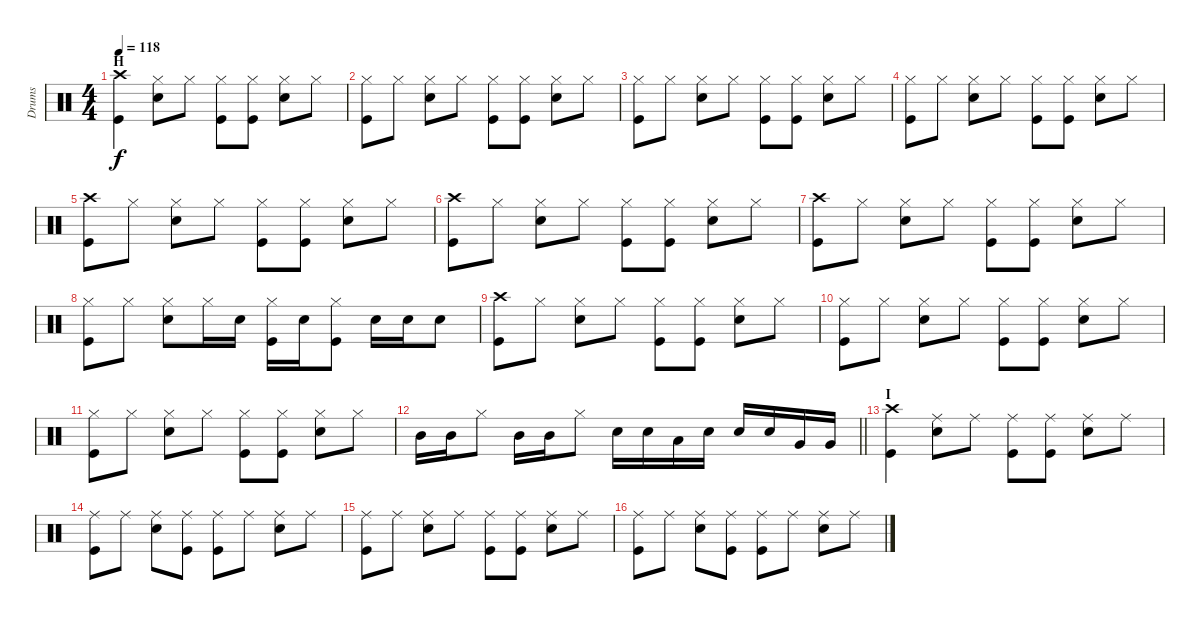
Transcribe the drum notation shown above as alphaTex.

\track ("Drums" "Drums") {instrument percussion}
\staff {score}
\articulation defaults
\ts (4 4)
\section ("" "H")
\tempo 118
\clef neutral
\ks c
("Crash high (hit)" "Kick (hit)").4{dy f} ("Hi-Hat (closed)" "Electric Snare (hit)").8 "Hi-Hat (closed)".8 ("Hi-Hat (closed)" "Kick (hit)").8 ("Hi-Hat (closed)" "Kick (hit)").8 ("Hi-Hat (closed)" "Electric Snare (hit)").8 "Hi-Hat (closed)".8 |
("Hi-Hat (closed)" "Kick (hit)").8 "Hi-Hat (closed)".8 ("Hi-Hat (closed)" "Electric Snare (hit)").8 "Hi-Hat (closed)".8 ("Hi-Hat (closed)" "Kick (hit)").8 ("Hi-Hat (closed)" "Kick (hit)").8 ("Hi-Hat (closed)" "Electric Snare (hit)").8 "Hi-Hat (closed)".8 |
("Hi-Hat (closed)" "Kick (hit)").8 "Hi-Hat (closed)".8 ("Hi-Hat (closed)" "Electric Snare (hit)").8 "Hi-Hat (closed)".8 ("Hi-Hat (closed)" "Kick (hit)").8 ("Hi-Hat (closed)" "Kick (hit)").8 ("Hi-Hat (closed)" "Electric Snare (hit)").8 "Hi-Hat (closed)".8 |
("Hi-Hat (closed)" "Kick (hit)").8 "Hi-Hat (closed)".8 ("Hi-Hat (closed)" "Electric Snare (hit)").8 "Hi-Hat (closed)".8 ("Hi-Hat (closed)" "Kick (hit)").8 ("Hi-Hat (closed)" "Kick (hit)").8 ("Hi-Hat (closed)" "Electric Snare (hit)").8 "Hi-Hat (closed)".8 |
("Crash high (hit)" "Kick (hit)").8 "Hi-Hat (closed)".8 ("Hi-Hat (closed)" "Electric Snare (hit)").8 "Hi-Hat (closed)".8 ("Hi-Hat (closed)" "Kick (hit)").8 ("Hi-Hat (closed)" "Kick (hit)").8 ("Hi-Hat (closed)" "Electric Snare (hit)").8 "Hi-Hat (closed)".8 |
("Crash high (hit)" "Kick (hit)").8 "Hi-Hat (closed)".8 ("Hi-Hat (closed)" "Electric Snare (hit)").8 "Hi-Hat (closed)".8 ("Hi-Hat (closed)" "Kick (hit)").8 ("Hi-Hat (closed)" "Kick (hit)").8 ("Hi-Hat (closed)" "Electric Snare (hit)").8 "Hi-Hat (closed)".8 |
("Crash high (hit)" "Kick (hit)").8 "Hi-Hat (closed)".8 ("Hi-Hat (closed)" "Electric Snare (hit)").8 "Hi-Hat (closed)".8 ("Hi-Hat (closed)" "Kick (hit)").8 ("Hi-Hat (closed)" "Kick (hit)").8 ("Hi-Hat (closed)" "Electric Snare (hit)").8 "Hi-Hat (closed)".8 |
("Hi-Hat (closed)" "Kick (hit)").8 "Hi-Hat (closed)".8 ("Hi-Hat (closed)" "Electric Snare (hit)").8 "Hi-Hat (closed)".16 "Electric Snare (hit)".16 ("Hi-Hat (closed)" "Kick (hit)").16 "Electric Snare (hit)".16 ("Hi-Hat (closed)" "Kick (hit)").8 "Electric Snare (hit)".16 "Electric Snare (hit)".16 "Electric Snare (hit)".8 |
("Crash high (hit)" "Kick (hit)").8 "Hi-Hat (closed)".8 ("Hi-Hat (closed)" "Electric Snare (hit)").8 "Hi-Hat (closed)".8 ("Hi-Hat (closed)" "Kick (hit)").8 ("Hi-Hat (closed)" "Kick (hit)").8 ("Hi-Hat (closed)" "Electric Snare (hit)").8 "Hi-Hat (closed)".8 |
("Hi-Hat (closed)" "Kick (hit)").8 "Hi-Hat (closed)".8 ("Hi-Hat (closed)" "Electric Snare (hit)").8 "Hi-Hat (closed)".8 ("Hi-Hat (closed)" "Kick (hit)").8 ("Hi-Hat (closed)" "Kick (hit)").8 ("Hi-Hat (closed)" "Electric Snare (hit)").8 "Hi-Hat (closed)".8 |
("Hi-Hat (closed)" "Kick (hit)").8 "Hi-Hat (closed)".8 ("Hi-Hat (closed)" "Electric Snare (hit)").8 "Hi-Hat (closed)".8 ("Hi-Hat (closed)" "Kick (hit)").8 ("Hi-Hat (closed)" "Kick (hit)").8 ("Hi-Hat (closed)" "Electric Snare (hit)").8 "Hi-Hat (closed)".8 |
\barLineRight lightlight "Mid Tom (hit)".16 "Mid Tom (hit)".16 "Hi-Hat (closed)".8 "Mid Tom (hit)".16 "Mid Tom (hit)".16 "Hi-Hat (closed)".8 "Electric Snare (hit)".16 "Electric Snare (hit)".16 "Low Tom (hit)".16 "Electric Snare (hit)".16 "Electric Snare (hit)".16 "Electric Snare (hit)".16 "Very Low Tom (hit)".16 "Very Low Tom (hit)".16
|
\section ("" "I")
("Crash high (hit)" "Kick (hit)").4 ("Ride (middle)" "Electric Snare (hit)").8 "Ride (middle)".8 ("Ride (middle)" "Kick (hit)").8 ("Ride (middle)" "Kick (hit)").8 ("Ride (middle)" "Electric Snare (hit)").8 "Ride (middle)".8 |
("Ride (middle)" "Kick (hit)").8 "Ride (middle)".8 ("Ride (middle)" "Electric Snare (hit)").8 ("Ride (middle)" "Kick (hit)").8 ("Ride (middle)" "Kick (hit)").8 "Ride (middle)".8 ("Ride (middle)" "Electric Snare (hit)").8 "Ride (middle)".8 |
("Ride (middle)" "Kick (hit)").8 "Ride (middle)".8 ("Ride (middle)" "Electric Snare (hit)").8 "Ride (middle)".8 ("Ride (middle)" "Kick (hit)").8 ("Ride (middle)" "Kick (hit)").8 ("Ride (middle)" "Electric Snare (hit)").8 "Ride (middle)".8 |
("Ride (middle)" "Kick (hit)").8 "Ride (middle)".8 ("Ride (middle)" "Electric Snare (hit)").8 ("Ride (middle)" "Kick (hit)").8 ("Ride (middle)" "Kick (hit)").8 "Ride (middle)".8 ("Ride (middle)" "Electric Snare (hit)").8 "Ride (middle)".8
